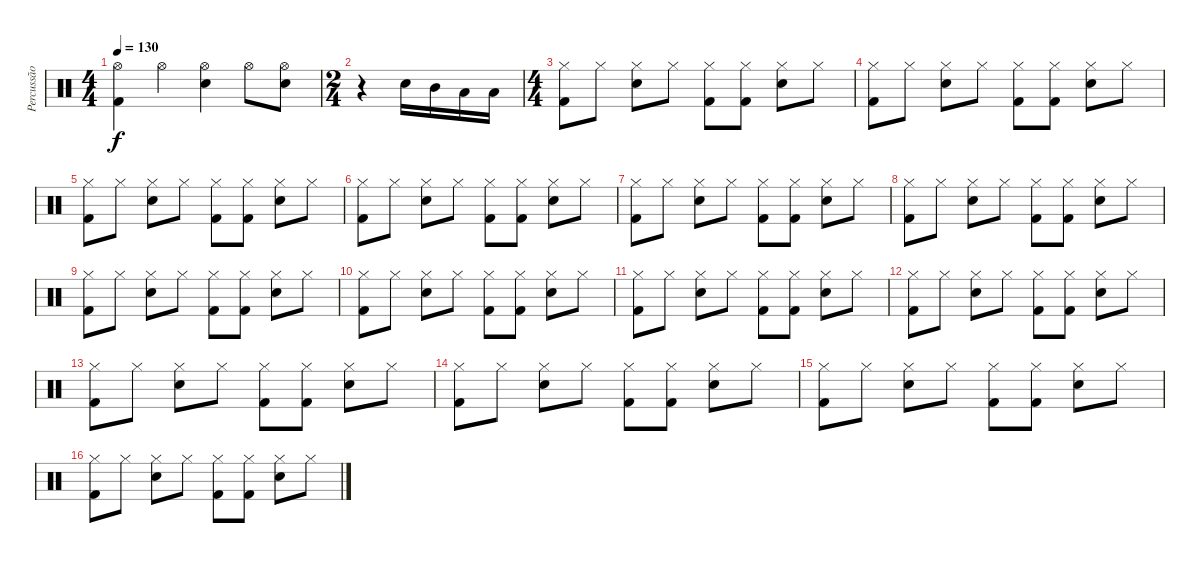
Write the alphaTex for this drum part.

\track ("Percussão" "Percussão") {instrument percussion}
\staff {score}
\articulation defaults
\ts (4 4)
\tempo 130
\clef neutral
\ks c
("Hi-Hat (open)" "Kick (hit) 2").4{dy f} "Hi-Hat (open)".4 ("Hi-Hat (open)" "Electric Snare (hit)").4 "Hi-Hat (open)".8 ("Hi-Hat (open)" "Electric Snare (hit)").8 |
\ts (2 4)
r.4 "Electric Snare (hit)".16 "Mid Tom (hit)".16 "Low Tom (hit)".16 "Low Tom (hit)".16 |
\ts (4 4)
("Hi-Hat (closed)" "Kick (hit) 2").8 "Hi-Hat (closed)".8 ("Hi-Hat (closed)" "Electric Snare (hit)").8 "Hi-Hat (closed)".8 ("Hi-Hat (closed)" "Kick (hit) 2").8 ("Hi-Hat (closed)" "Kick (hit) 2").8 ("Hi-Hat (closed)" "Electric Snare (hit)").8 "Hi-Hat (closed)".8 |
("Hi-Hat (closed)" "Kick (hit) 2").8 "Hi-Hat (closed)".8 ("Hi-Hat (closed)" "Electric Snare (hit)").8 "Hi-Hat (closed)".8 ("Hi-Hat (closed)" "Kick (hit) 2").8 ("Hi-Hat (closed)" "Kick (hit) 2").8 ("Hi-Hat (closed)" "Electric Snare (hit)").8 "Hi-Hat (closed)".8 |
("Hi-Hat (closed)" "Kick (hit) 2").8 "Hi-Hat (closed)".8 ("Hi-Hat (closed)" "Electric Snare (hit)").8 "Hi-Hat (closed)".8 ("Hi-Hat (closed)" "Kick (hit) 2").8 ("Hi-Hat (closed)" "Kick (hit) 2").8 ("Hi-Hat (closed)" "Electric Snare (hit)").8 "Hi-Hat (closed)".8 |
("Hi-Hat (closed)" "Kick (hit) 2").8 "Hi-Hat (closed)".8 ("Hi-Hat (closed)" "Electric Snare (hit)").8 "Hi-Hat (closed)".8 ("Hi-Hat (closed)" "Kick (hit) 2").8 ("Hi-Hat (closed)" "Kick (hit) 2").8 ("Hi-Hat (closed)" "Electric Snare (hit)").8 "Hi-Hat (closed)".8 |
("Hi-Hat (closed)" "Kick (hit) 2").8 "Hi-Hat (closed)".8 ("Hi-Hat (closed)" "Electric Snare (hit)").8 "Hi-Hat (closed)".8 ("Hi-Hat (closed)" "Kick (hit) 2").8 ("Hi-Hat (closed)" "Kick (hit) 2").8 ("Hi-Hat (closed)" "Electric Snare (hit)").8 "Hi-Hat (closed)".8 |
("Hi-Hat (closed)" "Kick (hit) 2").8 "Hi-Hat (closed)".8 ("Hi-Hat (closed)" "Electric Snare (hit)").8 "Hi-Hat (closed)".8 ("Hi-Hat (closed)" "Kick (hit) 2").8 ("Hi-Hat (closed)" "Kick (hit) 2").8 ("Hi-Hat (closed)" "Electric Snare (hit)").8 "Hi-Hat (closed)".8 |
("Hi-Hat (closed)" "Kick (hit) 2").8 "Hi-Hat (closed)".8 ("Hi-Hat (closed)" "Electric Snare (hit)").8 "Hi-Hat (closed)".8 ("Hi-Hat (closed)" "Kick (hit) 2").8 ("Hi-Hat (closed)" "Kick (hit) 2").8 ("Hi-Hat (closed)" "Electric Snare (hit)").8 "Hi-Hat (closed)".8 |
("Hi-Hat (closed)" "Kick (hit) 2").8 "Hi-Hat (closed)".8 ("Hi-Hat (closed)" "Electric Snare (hit)").8 "Hi-Hat (closed)".8 ("Hi-Hat (closed)" "Kick (hit) 2").8 ("Hi-Hat (closed)" "Kick (hit) 2").8 ("Hi-Hat (closed)" "Electric Snare (hit)").8 "Hi-Hat (closed)".8 |
("Hi-Hat (closed)" "Kick (hit) 2").8 "Hi-Hat (closed)".8 ("Hi-Hat (closed)" "Electric Snare (hit)").8 "Hi-Hat (closed)".8 ("Hi-Hat (closed)" "Kick (hit) 2").8 ("Hi-Hat (closed)" "Kick (hit) 2").8 ("Hi-Hat (closed)" "Electric Snare (hit)").8 "Hi-Hat (closed)".8 |
("Hi-Hat (closed)" "Kick (hit) 2").8 "Hi-Hat (closed)".8 ("Hi-Hat (closed)" "Electric Snare (hit)").8 "Hi-Hat (closed)".8 ("Hi-Hat (closed)" "Kick (hit) 2").8 ("Hi-Hat (closed)" "Kick (hit) 2").8 ("Hi-Hat (closed)" "Electric Snare (hit)").8 "Hi-Hat (closed)".8 |
("Hi-Hat (closed)" "Kick (hit) 2").8 "Hi-Hat (closed)".8 ("Hi-Hat (closed)" "Electric Snare (hit)").8 "Hi-Hat (closed)".8 ("Hi-Hat (closed)" "Kick (hit) 2").8 ("Hi-Hat (closed)" "Kick (hit) 2").8 ("Hi-Hat (closed)" "Electric Snare (hit)").8 "Hi-Hat (closed)".8 |
("Hi-Hat (closed)" "Kick (hit) 2").8 "Hi-Hat (closed)".8 ("Hi-Hat (closed)" "Electric Snare (hit)").8 "Hi-Hat (closed)".8 ("Hi-Hat (closed)" "Kick (hit) 2").8 ("Hi-Hat (closed)" "Kick (hit) 2").8 ("Hi-Hat (closed)" "Electric Snare (hit)").8 "Hi-Hat (closed)".8 |
("Hi-Hat (closed)" "Kick (hit) 2").8 "Hi-Hat (closed)".8 ("Hi-Hat (closed)" "Electric Snare (hit)").8 "Hi-Hat (closed)".8 ("Hi-Hat (closed)" "Kick (hit) 2").8 ("Hi-Hat (closed)" "Kick (hit) 2").8 ("Hi-Hat (closed)" "Electric Snare (hit)").8 "Hi-Hat (closed)".8 |
("Hi-Hat (closed)" "Kick (hit) 2").8 "Hi-Hat (closed)".8 ("Hi-Hat (closed)" "Electric Snare (hit)").8 "Hi-Hat (closed)".8 ("Hi-Hat (closed)" "Kick (hit) 2").8 ("Hi-Hat (closed)" "Kick (hit) 2").8 ("Hi-Hat (closed)" "Electric Snare (hit)").8 "Hi-Hat (closed)".8
